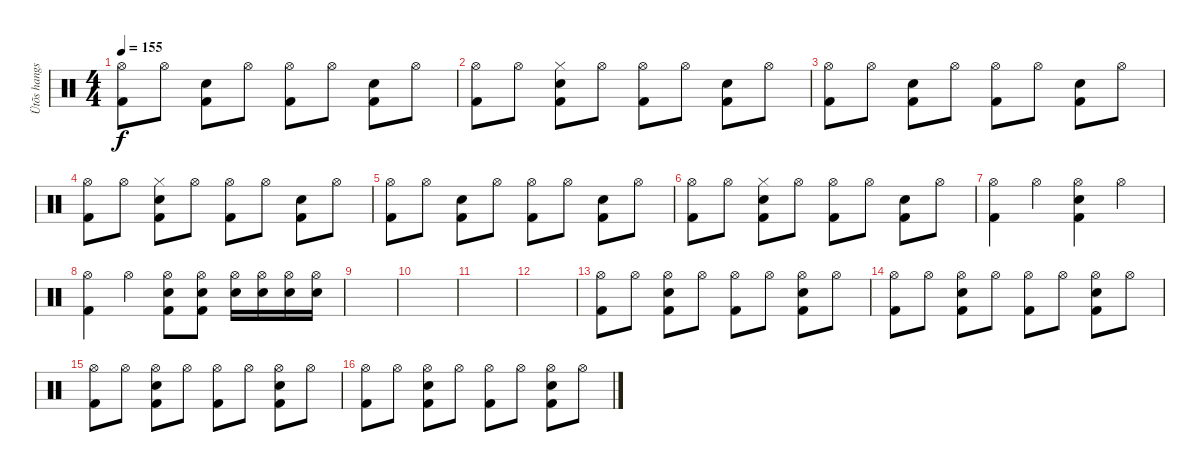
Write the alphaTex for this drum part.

\track ("Ütõs hangszer" "Ütõs hangs") {instrument percussion}
\staff {score}
\articulation defaults
\ts (4 4)
\tempo 155
\clef neutral
\ks c
("Hi-Hat (open)" "Kick (hit) 2").8{dy f} "Hi-Hat (open)".8 ("Electric Snare (hit)" "Kick (hit) 2").8 "Hi-Hat (open)".8 ("Hi-Hat (open)" "Kick (hit) 2").8 "Hi-Hat (open)".8 ("Electric Snare (hit)" "Kick (hit) 2").8 "Hi-Hat (open)".8 |
("Hi-Hat (open)" "Kick (hit) 2").8 "Hi-Hat (open)".8 ("Electric Snare (hit)" "Hi-Hat (closed)" "Kick (hit) 2").8 "Hi-Hat (open)".8 ("Hi-Hat (open)" "Kick (hit) 2").8 "Hi-Hat (open)".8 ("Electric Snare (hit)" "Kick (hit) 2").8 "Hi-Hat (open)".8 |
("Hi-Hat (open)" "Kick (hit) 2").8 "Hi-Hat (open)".8 ("Electric Snare (hit)" "Kick (hit) 2").8 "Hi-Hat (open)".8 ("Hi-Hat (open)" "Kick (hit) 2").8 "Hi-Hat (open)".8 ("Electric Snare (hit)" "Kick (hit) 2").8 "Hi-Hat (open)".8 |
("Hi-Hat (open)" "Kick (hit) 2").8 "Hi-Hat (open)".8 ("Electric Snare (hit)" "Hi-Hat (closed)" "Kick (hit) 2").8 "Hi-Hat (open)".8 ("Hi-Hat (open)" "Kick (hit) 2").8 "Hi-Hat (open)".8 ("Electric Snare (hit)" "Kick (hit) 2").8 "Hi-Hat (open)".8 |
("Hi-Hat (open)" "Kick (hit) 2").8 "Hi-Hat (open)".8 ("Electric Snare (hit)" "Kick (hit) 2").8 "Hi-Hat (open)".8 ("Hi-Hat (open)" "Kick (hit) 2").8 "Hi-Hat (open)".8 ("Electric Snare (hit)" "Kick (hit) 2").8 "Hi-Hat (open)".8 |
("Hi-Hat (open)" "Kick (hit) 2").8 "Hi-Hat (open)".8 ("Electric Snare (hit)" "Hi-Hat (closed)" "Kick (hit) 2").8 "Hi-Hat (open)".8 ("Hi-Hat (open)" "Kick (hit) 2").8 "Hi-Hat (open)".8 ("Electric Snare (hit)" "Kick (hit) 2").8 "Hi-Hat (open)".8 |
("Hi-Hat (open)" "Kick (hit) 2").4 "Hi-Hat (open)".4 ("Hi-Hat (open)" "Snare (hit) 2" "Kick (hit) 2").4 "Hi-Hat (open)".4 |
("Hi-Hat (open)" "Kick (hit) 2").4 "Hi-Hat (open)".4 ("Hi-Hat (open)" "Snare (hit) 2" "Kick (hit) 2").8 ("Hi-Hat (open)" "Snare (hit) 2" "Kick (hit) 2").8 ("Hi-Hat (open)" "Snare (hit) 2").16 ("Hi-Hat (open)" "Snare (hit) 2").16 ("Hi-Hat (open)" "Snare (hit) 2").16 ("Hi-Hat (open)" "Snare (hit) 2").16 |
|
|
|
|
("Hi-Hat (open)" "Kick (hit) 2").8 "Hi-Hat (open)".8 ("Hi-Hat (open)" "Electric Snare (hit)" "Kick (hit) 2").8 "Hi-Hat (open)".8 ("Hi-Hat (open)" "Kick (hit) 2").8 "Hi-Hat (open)".8 ("Hi-Hat (open)" "Electric Snare (hit)" "Kick (hit) 2").8 "Hi-Hat (open)".8 |
("Hi-Hat (open)" "Kick (hit) 2").8 "Hi-Hat (open)".8 ("Hi-Hat (open)" "Electric Snare (hit)" "Kick (hit) 2").8 "Hi-Hat (open)".8 ("Hi-Hat (open)" "Kick (hit) 2").8 "Hi-Hat (open)".8 ("Hi-Hat (open)" "Electric Snare (hit)" "Kick (hit) 2").8 "Hi-Hat (open)".8 |
("Hi-Hat (open)" "Kick (hit) 2").8 "Hi-Hat (open)".8 ("Hi-Hat (open)" "Electric Snare (hit)" "Kick (hit) 2").8 "Hi-Hat (open)".8 ("Hi-Hat (open)" "Kick (hit) 2").8 "Hi-Hat (open)".8 ("Hi-Hat (open)" "Electric Snare (hit)" "Kick (hit) 2").8 "Hi-Hat (open)".8 |
("Hi-Hat (open)" "Kick (hit) 2").8 "Hi-Hat (open)".8 ("Hi-Hat (open)" "Electric Snare (hit)" "Kick (hit) 2").8 "Hi-Hat (open)".8 ("Hi-Hat (open)" "Kick (hit) 2").8 "Hi-Hat (open)".8 ("Hi-Hat (open)" "Electric Snare (hit)" "Kick (hit) 2").8 "Hi-Hat (open)".8
